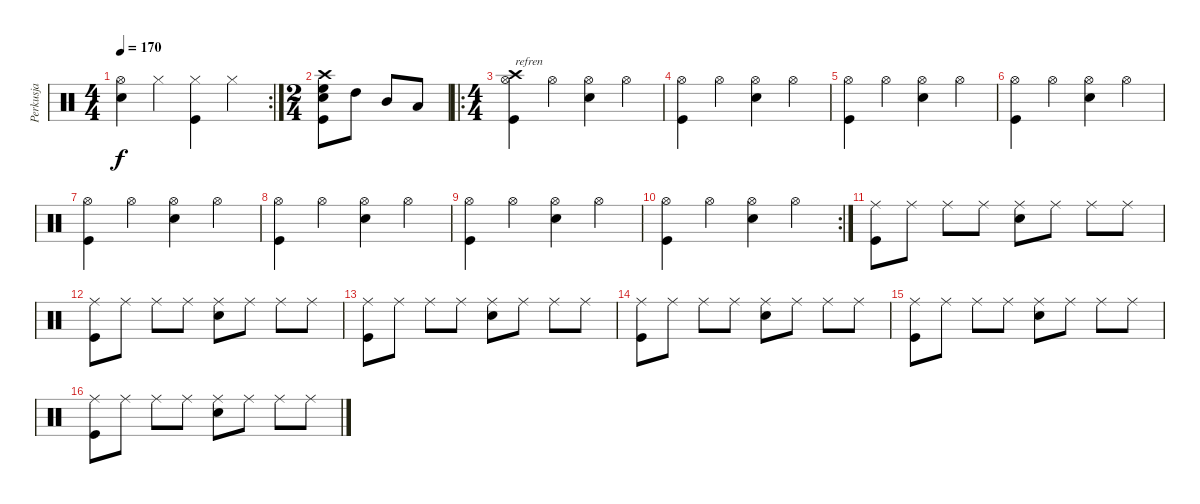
\track ("Perkusja" "Perkusja") {instrument percussion}
\staff {score}
\articulation defaults
\rc 2
\ts (4 4)
\tempo 170
\clef neutral
\ks c
("Hi-Hat (open)" "Electric Snare (hit)").4{dy f} "Hi-Hat (closed)".4 ("Hi-Hat (closed)" "Kick (hit)").4 "Hi-Hat (closed)".4 |
\ts (2 4)
("Crash high (hit)" "High Floor Tom (hit)" "Electric Snare (hit)" "Kick (hit)").8 "High Tom (hit)".8 "Mid Tom (hit)".8 "Low Tom (hit)".8 |
\ro
\ts (4 4)
("Hi-Hat (open)" "Crash high (hit)" "Kick (hit)").4{txt "refren"} "Hi-Hat (open)".4 ("Hi-Hat (open)" "Electric Snare (hit)").4 "Hi-Hat (open)".4 |
("Hi-Hat (open)" "Kick (hit)").4 "Hi-Hat (open)".4 ("Hi-Hat (open)" "Electric Snare (hit)").4 "Hi-Hat (open)".4 |
("Hi-Hat (open)" "Kick (hit)").4 "Hi-Hat (open)".4 ("Hi-Hat (open)" "Electric Snare (hit)").4 "Hi-Hat (open)".4 |
("Hi-Hat (open)" "Kick (hit)").4 "Hi-Hat (open)".4 ("Hi-Hat (open)" "Electric Snare (hit)").4 "Hi-Hat (open)".4 |
("Hi-Hat (open)" "Kick (hit)").4 "Hi-Hat (open)".4 ("Hi-Hat (open)" "Electric Snare (hit)").4 "Hi-Hat (open)".4 |
("Hi-Hat (open)" "Kick (hit)").4 "Hi-Hat (open)".4 ("Hi-Hat (open)" "Electric Snare (hit)").4 "Hi-Hat (open)".4 |
("Hi-Hat (open)" "Kick (hit)").4 "Hi-Hat (open)".4 ("Hi-Hat (open)" "Electric Snare (hit)").4 "Hi-Hat (open)".4 |
\rc 2
("Hi-Hat (open)" "Kick (hit)").4 "Hi-Hat (open)".4 ("Hi-Hat (open)" "Electric Snare (hit)").4 "Hi-Hat (open)".4 |
("Ride (middle)" "Kick (hit)").8 "Ride (middle)".8 "Ride (middle)".8 "Ride (middle)".8 ("Ride (middle)" "Electric Snare (hit)").8 "Ride (middle)".8 "Ride (middle)".8 "Ride (middle)".8 |
("Ride (middle)" "Kick (hit)").8 "Ride (middle)".8 "Ride (middle)".8 "Ride (middle)".8 ("Ride (middle)" "Electric Snare (hit)").8 "Ride (middle)".8 "Ride (middle)".8 "Ride (middle)".8 |
("Ride (middle)" "Kick (hit)").8 "Ride (middle)".8 "Ride (middle)".8 "Ride (middle)".8 ("Ride (middle)" "Electric Snare (hit)").8 "Ride (middle)".8 "Ride (middle)".8 "Ride (middle)".8 |
("Ride (middle)" "Kick (hit)").8 "Ride (middle)".8 "Ride (middle)".8 "Ride (middle)".8 ("Ride (middle)" "Electric Snare (hit)").8 "Ride (middle)".8 "Ride (middle)".8 "Ride (middle)".8 |
("Ride (middle)" "Kick (hit)").8 "Ride (middle)".8 "Ride (middle)".8 "Ride (middle)".8 ("Ride (middle)" "Electric Snare (hit)").8 "Ride (middle)".8 "Ride (middle)".8 "Ride (middle)".8 |
("Ride (middle)" "Kick (hit)").8 "Ride (middle)".8 "Ride (middle)".8 "Ride (middle)".8 ("Ride (middle)" "Electric Snare (hit)").8 "Ride (middle)".8 "Ride (middle)".8 "Ride (middle)".8
